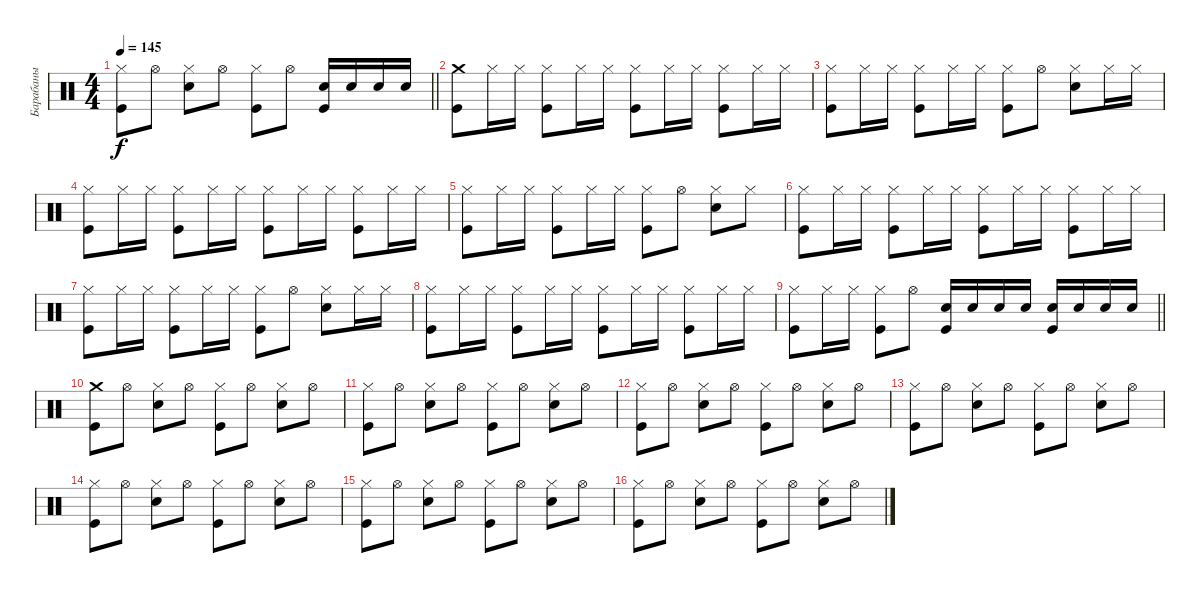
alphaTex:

\track ("Барабаны" "Барабаны") {instrument percussion}
\staff {score}
\articulation defaults
\ts (4 4)
\tempo 145
\clef neutral
\barLineRight lightlight
\ks c
("Hi-Hat (closed)" "Kick (hit)").8{dy f} "Hi-Hat (open)".8 ("Hi-Hat (closed)" "Electric Snare (hit)").8 "Hi-Hat (open)".8 ("Hi-Hat (closed)" "Kick (hit)").8 "Hi-Hat (open)".8 ("Electric Snare (hit)" "Kick (hit)").16 "Electric Snare (hit)".16 "Electric Snare (hit)".16 "Electric Snare (hit)".16 |
("Crash medium (hit)" "Kick (hit)").8 "Hi-Hat (closed)".16 "Hi-Hat (closed)".16 ("Hi-Hat (closed)" "Kick (hit)").8 "Hi-Hat (closed)".16 "Hi-Hat (closed)".16 ("Hi-Hat (closed)" "Kick (hit)").8 "Hi-Hat (closed)".16 "Hi-Hat (closed)".16 ("Hi-Hat (closed)" "Kick (hit)").8 "Hi-Hat (closed)".16 "Hi-Hat (closed)".16 |
("Hi-Hat (closed)" "Kick (hit)").8 "Hi-Hat (closed)".16 "Hi-Hat (closed)".16 ("Hi-Hat (closed)" "Kick (hit)").8 "Hi-Hat (closed)".16 "Hi-Hat (closed)".16 ("Hi-Hat (closed)" "Kick (hit)").8 "Hi-Hat (open)".8 ("Hi-Hat (closed)" "Electric Snare (hit)").8 "Hi-Hat (closed)".16 "Hi-Hat (closed)".16 |
("Hi-Hat (closed)" "Kick (hit)").8 "Hi-Hat (closed)".16 "Hi-Hat (closed)".16 ("Hi-Hat (closed)" "Kick (hit)").8 "Hi-Hat (closed)".16 "Hi-Hat (closed)".16 ("Hi-Hat (closed)" "Kick (hit)").8 "Hi-Hat (closed)".16 "Hi-Hat (closed)".16 ("Hi-Hat (closed)" "Kick (hit)").8 "Hi-Hat (closed)".16 "Hi-Hat (closed)".16 |
("Hi-Hat (closed)" "Kick (hit)").8 "Hi-Hat (closed)".16 "Hi-Hat (closed)".16 ("Hi-Hat (closed)" "Kick (hit)").8 "Hi-Hat (closed)".16 "Hi-Hat (closed)".16 ("Hi-Hat (closed)" "Kick (hit)").8 "Hi-Hat (open)".8 ("Hi-Hat (closed)" "Electric Snare (hit)").8 "Hi-Hat (closed)".8 |
("Hi-Hat (closed)" "Kick (hit)").8 "Hi-Hat (closed)".16 "Hi-Hat (closed)".16 ("Hi-Hat (closed)" "Kick (hit)").8 "Hi-Hat (closed)".16 "Hi-Hat (closed)".16 ("Hi-Hat (closed)" "Kick (hit)").8 "Hi-Hat (closed)".16 "Hi-Hat (closed)".16 ("Hi-Hat (closed)" "Kick (hit)").8 "Hi-Hat (closed)".16 "Hi-Hat (closed)".16 |
("Hi-Hat (closed)" "Kick (hit)").8 "Hi-Hat (closed)".16 "Hi-Hat (closed)".16 ("Hi-Hat (closed)" "Kick (hit)").8 "Hi-Hat (closed)".16 "Hi-Hat (closed)".16 ("Hi-Hat (closed)" "Kick (hit)").8 "Hi-Hat (open)".8 ("Hi-Hat (closed)" "Electric Snare (hit)").8 "Hi-Hat (closed)".16 "Hi-Hat (closed)".16 |
("Hi-Hat (closed)" "Kick (hit)").8 "Hi-Hat (closed)".16 "Hi-Hat (closed)".16 ("Hi-Hat (closed)" "Kick (hit)").8 "Hi-Hat (closed)".16 "Hi-Hat (closed)".16 ("Hi-Hat (closed)" "Kick (hit)").8 "Hi-Hat (closed)".16 "Hi-Hat (closed)".16 ("Hi-Hat (closed)" "Kick (hit)").8 "Hi-Hat (closed)".16 "Hi-Hat (closed)".16 |
\barLineRight lightlight
("Hi-Hat (closed)" "Kick (hit)").8 "Hi-Hat (closed)".16 "Hi-Hat (closed)".16 ("Hi-Hat (closed)" "Kick (hit)").8 "Hi-Hat (open)".8 ("Electric Snare (hit)" "Kick (hit)").16 "Electric Snare (hit)".16 "Electric Snare (hit)".16 "Electric Snare (hit)".16 ("Electric Snare (hit)" "Kick (hit)").16 "Electric Snare (hit)".16 "Electric Snare (hit)".16 "Electric Snare (hit)".16 |
("Crash medium (hit)" "Kick (hit)").8 "Hi-Hat (open)".8 ("Hi-Hat (closed)" "Electric Snare (hit)").8 "Hi-Hat (open)".8 ("Hi-Hat (closed)" "Kick (hit)").8 "Hi-Hat (open)".8 ("Hi-Hat (closed)" "Electric Snare (hit)").8 "Hi-Hat (open)".8 |
("Hi-Hat (closed)" "Kick (hit)").8 "Hi-Hat (open)".8 ("Hi-Hat (closed)" "Electric Snare (hit)").8 "Hi-Hat (open)".8 ("Hi-Hat (closed)" "Kick (hit)").8 "Hi-Hat (open)".8 ("Hi-Hat (closed)" "Electric Snare (hit)").8 "Hi-Hat (open)".8 |
("Hi-Hat (closed)" "Kick (hit)").8 "Hi-Hat (open)".8 ("Hi-Hat (closed)" "Electric Snare (hit)").8 "Hi-Hat (open)".8 ("Hi-Hat (closed)" "Kick (hit)").8 "Hi-Hat (open)".8 ("Hi-Hat (closed)" "Electric Snare (hit)").8 "Hi-Hat (open)".8 |
("Hi-Hat (closed)" "Kick (hit)").8 "Hi-Hat (open)".8 ("Hi-Hat (closed)" "Electric Snare (hit)").8 "Hi-Hat (open)".8 ("Hi-Hat (closed)" "Kick (hit)").8 "Hi-Hat (open)".8 ("Hi-Hat (closed)" "Electric Snare (hit)").8 "Hi-Hat (open)".8 |
("Hi-Hat (closed)" "Kick (hit)").8 "Hi-Hat (open)".8 ("Hi-Hat (closed)" "Electric Snare (hit)").8 "Hi-Hat (open)".8 ("Hi-Hat (closed)" "Kick (hit)").8 "Hi-Hat (open)".8 ("Hi-Hat (closed)" "Electric Snare (hit)").8 "Hi-Hat (open)".8 |
("Hi-Hat (closed)" "Kick (hit)").8 "Hi-Hat (open)".8 ("Hi-Hat (closed)" "Electric Snare (hit)").8 "Hi-Hat (open)".8 ("Hi-Hat (closed)" "Kick (hit)").8 "Hi-Hat (open)".8 ("Hi-Hat (closed)" "Electric Snare (hit)").8 "Hi-Hat (open)".8 |
("Hi-Hat (closed)" "Kick (hit)").8 "Hi-Hat (open)".8 ("Hi-Hat (closed)" "Electric Snare (hit)").8 "Hi-Hat (open)".8 ("Hi-Hat (closed)" "Kick (hit)").8 "Hi-Hat (open)".8 ("Hi-Hat (closed)" "Electric Snare (hit)").8 "Hi-Hat (open)".8
